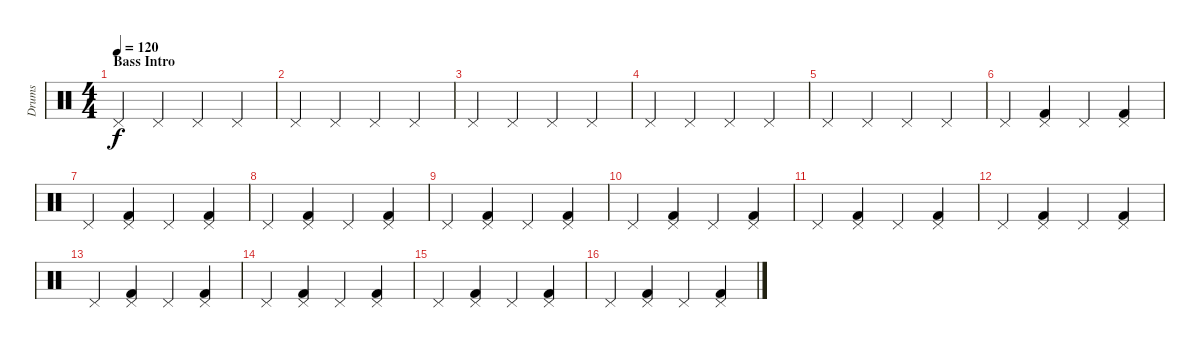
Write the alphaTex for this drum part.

\track ("Drums" "Drums") {instrument percussion}
\staff {score}
\articulation defaults
\ts (4 4)
\section ("" "Bass Intro")
\tempo 120
\clef neutral
\ks c "Pedal Hi-Hat (hit)".4{dy f} "Pedal Hi-Hat (hit)".4 "Pedal Hi-Hat (hit)".4 "Pedal Hi-Hat (hit)".4
|
"Pedal Hi-Hat (hit)".4 "Pedal Hi-Hat (hit)".4 "Pedal Hi-Hat (hit)".4 "Pedal Hi-Hat (hit)".4 |
"Pedal Hi-Hat (hit)".4 "Pedal Hi-Hat (hit)".4 "Pedal Hi-Hat (hit)".4 "Pedal Hi-Hat (hit)".4 |
"Pedal Hi-Hat (hit)".4 "Pedal Hi-Hat (hit)".4 "Pedal Hi-Hat (hit)".4 "Pedal Hi-Hat (hit)".4 |
"Pedal Hi-Hat (hit)".4 "Pedal Hi-Hat (hit)".4 "Pedal Hi-Hat (hit)".4 "Pedal Hi-Hat (hit)".4 |
"Pedal Hi-Hat (hit)".4 ("Pedal Hi-Hat (hit)" "Kick (hit) 2").4 "Pedal Hi-Hat (hit)".4 ("Pedal Hi-Hat (hit)" "Kick (hit) 2").4 |
"Pedal Hi-Hat (hit)".4 ("Pedal Hi-Hat (hit)" "Kick (hit) 2").4 "Pedal Hi-Hat (hit)".4 ("Pedal Hi-Hat (hit)" "Kick (hit) 2").4 |
"Pedal Hi-Hat (hit)".4 ("Pedal Hi-Hat (hit)" "Kick (hit) 2").4 "Pedal Hi-Hat (hit)".4 ("Pedal Hi-Hat (hit)" "Kick (hit) 2").4 |
"Pedal Hi-Hat (hit)".4 ("Pedal Hi-Hat (hit)" "Kick (hit) 2").4 "Pedal Hi-Hat (hit)".4 ("Pedal Hi-Hat (hit)" "Kick (hit) 2").4 |
"Pedal Hi-Hat (hit)".4 ("Pedal Hi-Hat (hit)" "Kick (hit) 2").4 "Pedal Hi-Hat (hit)".4 ("Pedal Hi-Hat (hit)" "Kick (hit) 2").4 |
"Pedal Hi-Hat (hit)".4 ("Pedal Hi-Hat (hit)" "Kick (hit) 2").4 "Pedal Hi-Hat (hit)".4 ("Pedal Hi-Hat (hit)" "Kick (hit) 2").4 |
"Pedal Hi-Hat (hit)".4 ("Pedal Hi-Hat (hit)" "Kick (hit) 2").4 "Pedal Hi-Hat (hit)".4 ("Pedal Hi-Hat (hit)" "Kick (hit) 2").4 |
"Pedal Hi-Hat (hit)".4 ("Pedal Hi-Hat (hit)" "Kick (hit) 2").4 "Pedal Hi-Hat (hit)".4 ("Pedal Hi-Hat (hit)" "Kick (hit) 2").4 |
"Pedal Hi-Hat (hit)".4 ("Pedal Hi-Hat (hit)" "Kick (hit) 2").4 "Pedal Hi-Hat (hit)".4 ("Pedal Hi-Hat (hit)" "Kick (hit) 2").4 |
"Pedal Hi-Hat (hit)".4 ("Pedal Hi-Hat (hit)" "Kick (hit) 2").4 "Pedal Hi-Hat (hit)".4 ("Pedal Hi-Hat (hit)" "Kick (hit) 2").4 |
"Pedal Hi-Hat (hit)".4 ("Pedal Hi-Hat (hit)" "Kick (hit) 2").4 "Pedal Hi-Hat (hit)".4 ("Pedal Hi-Hat (hit)" "Kick (hit) 2").4
